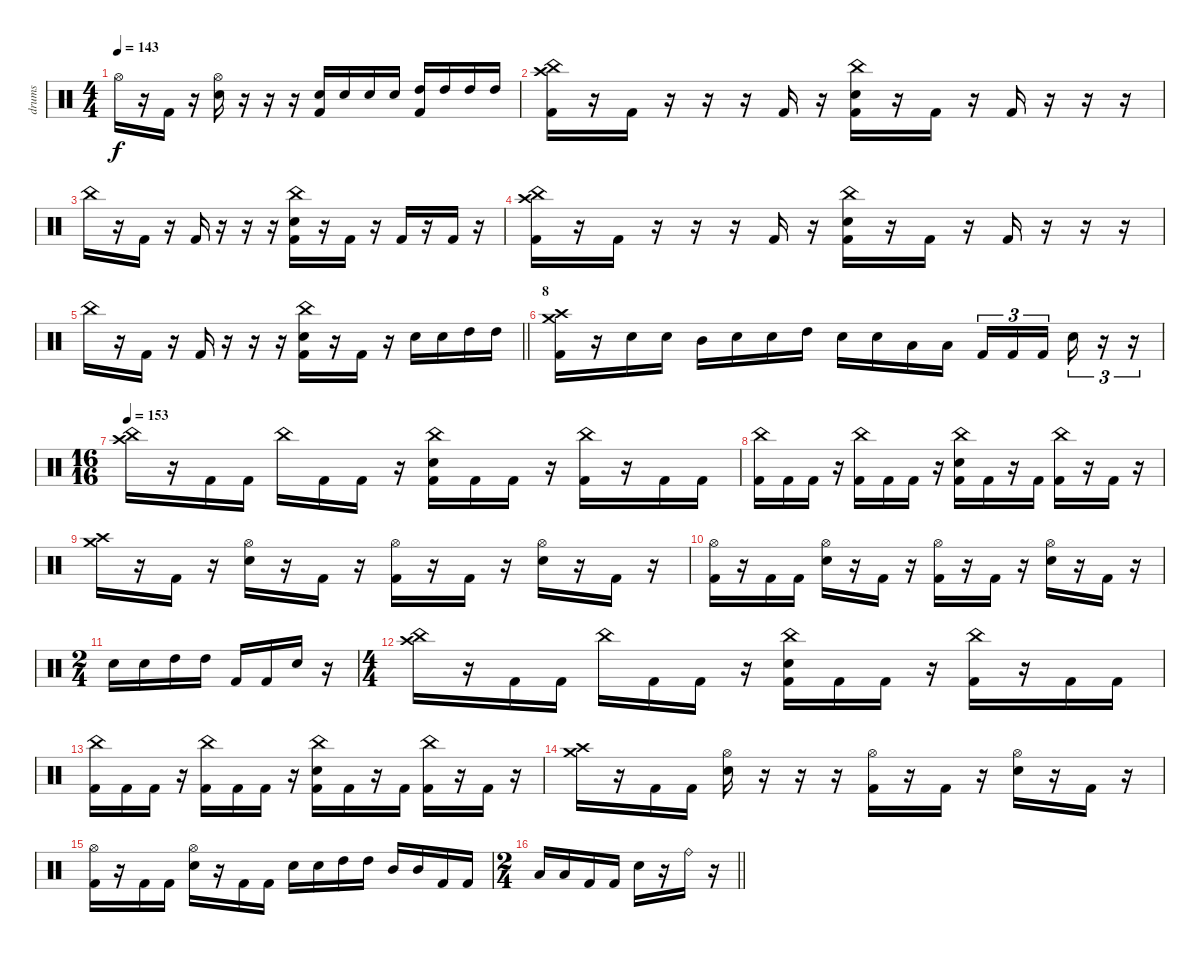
\track ("drums" "drums") {instrument percussion}
\staff {score}
\articulation defaults
\ts (4 4)
\tempo 143
\clef neutral
\ks c "Hi-Hat (open)".16{dy f}
r.16 "Kick (hit) 2".16 r.16 ("Hi-Hat (open)" "Electric Snare (hit)").16 r.16 r.16 r.16 ("Electric Snare (hit)" "Kick (hit) 2").16 "Electric Snare (hit)".16 "Electric Snare (hit)".16 "Electric Snare (hit)".16 ("High Tom (hit)" "Kick (hit) 2").16 "High Tom (hit)".16 "High Tom (hit)".16 "High Tom (hit)".16 |
("China (hit)" "Crash high (hit)" "Kick (hit) 2").16 r.16 "Kick (hit) 2".16 r.16 r.16 r.16 "Kick (hit) 2".16 r.16 ("China (hit)" "Electric Snare (hit)" "Kick (hit) 2").16 r.16 "Kick (hit) 2".16 r.16 "Kick (hit) 2".16 r.16 r.16 r.16 |
"China (hit)".16 r.16 "Kick (hit) 2".16 r.16 "Kick (hit) 2".16 r.16 r.16 r.16 ("China (hit)" "Electric Snare (hit)" "Kick (hit) 2").16 r.16 "Kick (hit) 2".16 r.16 "Kick (hit) 2".16 r.16 "Kick (hit) 2".16 r.16 |
("China (hit)" "Crash high (hit)" "Kick (hit) 2").16 r.16 "Kick (hit) 2".16 r.16 r.16 r.16 "Kick (hit) 2".16 r.16 ("China (hit)" "Electric Snare (hit)" "Kick (hit) 2").16 r.16 "Kick (hit) 2".16 r.16 "Kick (hit) 2".16 r.16 r.16 r.16 |
\barLineRight lightlight "China (hit)".16
r.16 "Kick (hit) 2".16 r.16 "Kick (hit) 2".16 r.16 r.16 r.16 ("China (hit)" "Electric Snare (hit)" "Kick (hit) 2").16 r.16 "Kick (hit) 2".16 r.16 "Electric Snare (hit)".16 "Electric Snare (hit)".16 "High Tom (hit)".16 "High Tom (hit)".16 |
\section ("" "8")
("Crash medium (hit)" "Crash high (hit)" "Kick (hit) 2").16 r.16 "Electric Snare (hit)".16 "Electric Snare (hit)".16 "Mid Tom (hit)".16 "Electric Snare (hit)".16 "Electric Snare (hit)".16 "High Tom (hit)".16 "Electric Snare (hit)".16 "Electric Snare (hit)".16 "Low Floor Tom (hit)".16 "Low Floor Tom (hit)".16 "Kick (hit) 2".16{tu (3 2)} "Kick (hit) 2".16{tu (3 2)} "Kick (hit) 2".16{tu (3 2) beam splitsecondary} "Electric Snare (hit)".16{tu (3 2)} r.16{tu (3 2)} r.16{tu (3 2)} |
\ts (16 16)
\tempo 153
("China (hit)" "Crash high (hit)").16 r.16 "Kick (hit) 2".16 "Kick (hit) 2".16 "China (hit)".16 "Kick (hit) 2".16 "Kick (hit) 2".16 r.16 ("China (hit)" "Electric Snare (hit)" "Kick (hit) 2").16 "Kick (hit) 2".16 "Kick (hit) 2".16 r.16 ("China (hit)" "Kick (hit) 2").16 r.16 "Kick (hit) 2".16 "Kick (hit) 2".16 |
("China (hit)" "Kick (hit) 2").16 "Kick (hit) 2".16 "Kick (hit) 2".16 r.16 ("China (hit)" "Kick (hit) 2").16 "Kick (hit) 2".16 "Kick (hit) 2".16 r.16 ("China (hit)" "Electric Snare (hit)" "Kick (hit) 2").16 "Kick (hit) 2".16 r.16 "Kick (hit) 2".16 ("China (hit)" "Kick (hit) 2").16 r.16 "Kick (hit) 2".16 r.16 |
("Crash medium (hit)" "Crash high (hit)").16 r.16 "Kick (hit) 2".16 r.16 ("Hi-Hat (open)" "Electric Snare (hit)").16 r.16 "Kick (hit) 2".16 r.16 ("Hi-Hat (open)" "Kick (hit) 2").16 r.16 "Kick (hit) 2".16 r.16 ("Hi-Hat (open)" "Electric Snare (hit)").16 r.16 "Kick (hit) 2".16 r.16 |
("Hi-Hat (open)" "Kick (hit) 2").16 r.16 "Kick (hit) 2".16 "Kick (hit) 2".16 ("Hi-Hat (open)" "Electric Snare (hit)").16 r.16 "Kick (hit) 2".16 r.16 ("Hi-Hat (open)" "Kick (hit) 2").16 r.16 "Kick (hit) 2".16 r.16 ("Hi-Hat (open)" "Electric Snare (hit)").16 r.16 "Kick (hit) 2".16 r.16 |
\ts (2 4)
"Electric Snare (hit)".16 "Electric Snare (hit)".16 "High Tom (hit)".16 "High Tom (hit)".16 "Kick (hit) 2".16 "Kick (hit) 2".16 "Electric Snare (hit)".16 r.16 |
\ts (4 4)
("China (hit)" "Crash high (hit)").16 r.16 "Kick (hit) 2".16 "Kick (hit) 2".16 "China (hit)".16 "Kick (hit) 2".16 "Kick (hit) 2".16 r.16 ("China (hit)" "Electric Snare (hit)" "Kick (hit) 2").16 "Kick (hit) 2".16 "Kick (hit) 2".16 r.16 ("China (hit)" "Kick (hit) 2").16 r.16 "Kick (hit) 2".16 "Kick (hit) 2".16 |
("China (hit)" "Kick (hit) 2").16 "Kick (hit) 2".16 "Kick (hit) 2".16 r.16 ("China (hit)" "Kick (hit) 2").16 "Kick (hit) 2".16 "Kick (hit) 2".16 r.16 ("China (hit)" "Electric Snare (hit)" "Kick (hit) 2").16 "Kick (hit) 2".16 r.16 "Kick (hit) 2".16 ("China (hit)" "Kick (hit) 2").16 r.16 "Kick (hit) 2".16 r.16 |
("Crash medium (hit)" "Crash high (hit)").16 r.16 "Kick (hit) 2".16 "Kick (hit) 2".16 ("Hi-Hat (open)" "Electric Snare (hit)").16 r.16 r.16 r.16 ("Hi-Hat (open)" "Kick (hit) 2").16 r.16 "Kick (hit) 2".16 r.16 ("Hi-Hat (open)" "Electric Snare (hit)").16 r.16 "Kick (hit) 2".16 r.16 |
("Hi-Hat (open)" "Kick (hit) 2").16 r.16 "Kick (hit) 2".16 "Kick (hit) 2".16 ("Hi-Hat (open)" "Electric Snare (hit)").16 r.16 "Kick (hit) 2".16 "Kick (hit) 2".16 "Electric Snare (hit)".16 "Electric Snare (hit)".16 "High Tom (hit)".16 "High Tom (hit)".16 "Mid Tom (hit)".16 "Mid Tom (hit)".16 "Kick (hit) 2".16 "Kick (hit) 2".16 |
\ts (2 4)
\barLineRight lightlight "Low Floor Tom (hit)".16 "Low Floor Tom (hit)".16 "Kick (hit) 2".16 "Kick (hit) 2".16 "Electric Snare (hit)".16
r.16 "Ride (bell)".16 r.16
